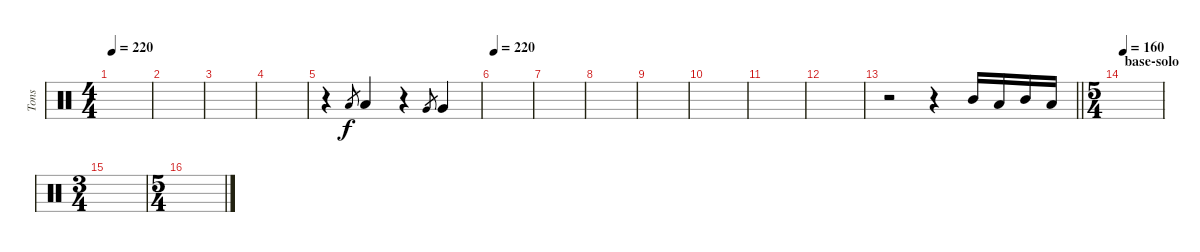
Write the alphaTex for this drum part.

\track ("Tons" "Tons") {instrument percussion}
\staff {score}
\articulation defaults
\ts (4 4)
\tempo 220
\clef neutral
\ks c
|
|
|
|
r.4 "Low Tom (hit)".8{gr} "Low Tom (hit)".4 r.4 "Very Low Tom (hit)".8{gr} "Very Low Tom (hit)".4 |
\tempo 220
|
|
|
|
|
|
|
\barLineRight lightlight
r.2 r.4 "Mid Tom (hit)".16 "Low Tom (hit)".16 "Mid Tom (hit)".16 "Low Tom (hit)".16 |
\ts (5 4)
\section ("" "base-solo")
\tempo 160
|
\ts (3 4)
|
\ts (5 4)
